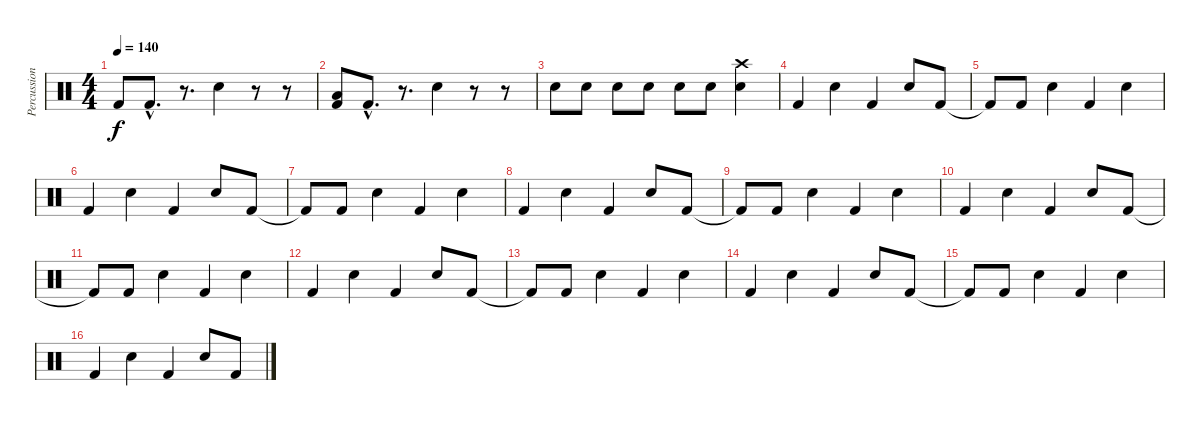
\track ("Percussion" "Percussion") {instrument percussion}
\staff {score}
\articulation defaults
\ts (4 4)
\tempo 140
\clef neutral
\ks c "Kick (hit) 2".8{dy f} "Kick (hit) 2"{hac}.8{d}
r.8{d} "Electric Snare (hit)".4 r.8 r.8 |
("Low Floor Tom (hit)" "Kick (hit) 2").8 "Kick (hit) 2"{hac}.8{d} r.8{d} "Electric Snare (hit)".4 r.8 r.8 |
"Electric Snare (hit)".8 "Electric Snare (hit)".8 "Electric Snare (hit)".8 "Electric Snare (hit)".8 "Electric Snare (hit)".8 "Electric Snare (hit)".8 ("Crash high (hit)" "Electric Snare (hit)").4 |
"Kick (hit) 2".4 "Electric Snare (hit)".4 "Kick (hit) 2".4 "Electric Snare (hit)".8 "Kick (hit) 2".8 |
"Kick (hit) 2"{t}.8 "Kick (hit) 2".8 "Electric Snare (hit)".4 "Kick (hit) 2".4 "Electric Snare (hit)".4 |
"Kick (hit) 2".4 "Electric Snare (hit)".4 "Kick (hit) 2".4 "Electric Snare (hit)".8 "Kick (hit) 2".8 |
"Kick (hit) 2"{t}.8 "Kick (hit) 2".8 "Electric Snare (hit)".4 "Kick (hit) 2".4 "Electric Snare (hit)".4 |
"Kick (hit) 2".4 "Electric Snare (hit)".4 "Kick (hit) 2".4 "Electric Snare (hit)".8 "Kick (hit) 2".8 |
"Kick (hit) 2"{t}.8 "Kick (hit) 2".8 "Electric Snare (hit)".4 "Kick (hit) 2".4 "Electric Snare (hit)".4 |
"Kick (hit) 2".4 "Electric Snare (hit)".4 "Kick (hit) 2".4 "Electric Snare (hit)".8 "Kick (hit) 2".8 |
"Kick (hit) 2"{t}.8 "Kick (hit) 2".8 "Electric Snare (hit)".4 "Kick (hit) 2".4 "Electric Snare (hit)".4 |
"Kick (hit) 2".4 "Electric Snare (hit)".4 "Kick (hit) 2".4 "Electric Snare (hit)".8 "Kick (hit) 2".8 |
"Kick (hit) 2"{t}.8 "Kick (hit) 2".8 "Electric Snare (hit)".4 "Kick (hit) 2".4 "Electric Snare (hit)".4 |
"Kick (hit) 2".4 "Electric Snare (hit)".4 "Kick (hit) 2".4 "Electric Snare (hit)".8 "Kick (hit) 2".8 |
"Kick (hit) 2"{t}.8 "Kick (hit) 2".8 "Electric Snare (hit)".4 "Kick (hit) 2".4 "Electric Snare (hit)".4 |
"Kick (hit) 2".4 "Electric Snare (hit)".4 "Kick (hit) 2".4 "Electric Snare (hit)".8 "Kick (hit) 2".8
